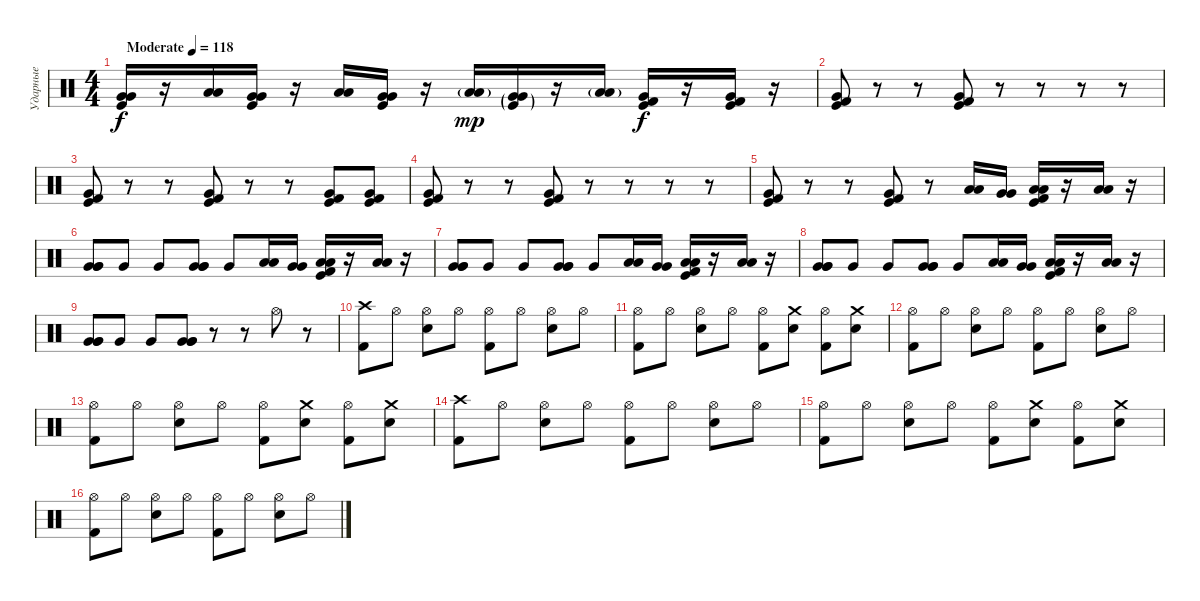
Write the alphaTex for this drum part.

\track ("Ударные" "Ударные") {instrument percussion}
\staff {score}
\articulation defaults
\ts (4 4)
\tempo (118 "Moderate")
\clef neutral
\ks c
("Very Low Tom (hit)" "Very Low Tom (hit)" "Kick (hit)").16{dy f} r.16 ("Low Tom (hit)" "Low Tom (hit)").16 ("Very Low Tom (hit)" "Very Low Tom (hit)" "Kick (hit)").16 r.16 ("Low Tom (hit)" "Low Tom (hit)").16 ("Very Low Tom (hit)" "Very Low Tom (hit)" "Kick (hit)").16 r.16 ("Low Tom (hit)"{g} "Low Tom (hit)"{g}).16{dy mp} ("Very Low Tom (hit)"{g} "Very Low Tom (hit)"{g} "Kick (hit)"{g}).16 r.16 ("Low Tom (hit)"{g} "Low Tom (hit)"{g}).16 ("Very Low Tom (hit)" "Kick (hit) 2" "Kick (hit)").16{dy f} r.16 ("Very Low Tom (hit)" "Kick (hit) 2" "Kick (hit)").16 r.16 |
("Very Low Tom (hit)" "Kick (hit) 2" "Kick (hit)").8 r.8 r.8 ("Very Low Tom (hit)" "Kick (hit) 2" "Kick (hit)").8 r.8 r.8 r.8 r.8 |
("Very Low Tom (hit)" "Kick (hit) 2" "Kick (hit)").8 r.8 r.8 ("Very Low Tom (hit)" "Kick (hit) 2" "Kick (hit)").8 r.8 r.8 ("Very Low Tom (hit)" "Kick (hit) 2" "Kick (hit)").8 ("Very Low Tom (hit)" "Kick (hit) 2" "Kick (hit)").8 |
("Very Low Tom (hit)" "Kick (hit) 2" "Kick (hit)").8 r.8 r.8 ("Very Low Tom (hit)" "Kick (hit)" "Kick (hit) 2").8 r.8 r.8 r.8 r.8 |
("Very Low Tom (hit)" "Kick (hit) 2" "Kick (hit)").8 r.8 r.8 ("Very Low Tom (hit)" "Kick (hit) 2" "Kick (hit)").8 r.8 ("Low Tom (hit)" "Low Tom (hit)").16 ("Very Low Tom (hit)" "Very Low Tom (hit)").16 ("Low Floor Tom (hit)" "Low Floor Tom (hit)" "Kick (hit) 2" "Kick (hit)").16 r.16 ("Low Floor Tom (hit)" "Low Floor Tom (hit)").16 r.16 |
("Very Low Tom (hit)" "Very Low Tom (hit)" "Very Low Tom (hit)").8 "Very Low Tom (hit)".8 "Very Low Tom (hit)".8 ("Very Low Tom (hit)" "Very Low Tom (hit)" "Very Low Tom (hit)").8 "Very Low Tom (hit)".8 ("Low Tom (hit)" "Low Tom (hit)").16 ("Very Low Tom (hit)" "Very Low Tom (hit)").16 ("Low Floor Tom (hit)" "Low Floor Tom (hit)" "Kick (hit) 2" "Kick (hit)").16 r.16 ("Low Floor Tom (hit)" "Low Floor Tom (hit)").16 r.16 |
("Very Low Tom (hit)" "Very Low Tom (hit)" "Very Low Tom (hit)").8 "Very Low Tom (hit)".8 "Very Low Tom (hit)".8 ("Very Low Tom (hit)" "Very Low Tom (hit)" "Very Low Tom (hit)").8 "Very Low Tom (hit)".8 ("Low Tom (hit)" "Low Tom (hit)").16 ("Very Low Tom (hit)" "Very Low Tom (hit)").16 ("Low Floor Tom (hit)" "Low Floor Tom (hit)" "Kick (hit) 2" "Kick (hit)").16 r.16 ("Low Floor Tom (hit)" "Low Floor Tom (hit)").16 r.16 |
("Very Low Tom (hit)" "Very Low Tom (hit)" "Very Low Tom (hit)").8 "Very Low Tom (hit)".8 "Very Low Tom (hit)".8 ("Very Low Tom (hit)" "Very Low Tom (hit)" "Very Low Tom (hit)").8 "Very Low Tom (hit)".8 ("Low Tom (hit)" "Low Tom (hit)").16 ("Very Low Tom (hit)" "Very Low Tom (hit)").16 ("Low Floor Tom (hit)" "Low Floor Tom (hit)" "Kick (hit) 2" "Kick (hit)").16 r.16 ("Low Floor Tom (hit)" "Low Floor Tom (hit)").16 r.16 |
("Very Low Tom (hit)" "Very Low Tom (hit)" "Very Low Tom (hit)").8 "Very Low Tom (hit)".8 "Very Low Tom (hit)".8 ("Very Low Tom (hit)" "Very Low Tom (hit)" "Very Low Tom (hit)").8 r.8 r.8 "Hi-Hat (open)".8 r.8 |
("Crash high (hit)" "Kick (hit) 2").8 "Hi-Hat (open)".8 ("Hi-Hat (open)" "Snare (hit) 2").8 "Hi-Hat (open)".8 ("Hi-Hat (open)" "Kick (hit) 2").8 "Hi-Hat (open)".8 ("Hi-Hat (open)" "Snare (hit) 2").8 "Hi-Hat (open)".8 |
("Hi-Hat (open)" "Kick (hit) 2").8 "Hi-Hat (open)".8 ("Hi-Hat (open)" "Snare (hit) 2").8 "Hi-Hat (open)".8 ("Hi-Hat (open)" "Kick (hit) 2").8 ("Crash medium (hit)" "Snare (hit) 2").8 ("Hi-Hat (open)" "Kick (hit) 2").8 ("Crash medium (hit)" "Snare (hit) 2").8 |
("Hi-Hat (open)" "Kick (hit) 2").8 "Hi-Hat (open)".8 ("Hi-Hat (open)" "Snare (hit) 2").8 "Hi-Hat (open)".8 ("Hi-Hat (open)" "Kick (hit) 2").8 "Hi-Hat (open)".8 ("Hi-Hat (open)" "Snare (hit) 2").8 "Hi-Hat (open)".8 |
("Hi-Hat (open)" "Kick (hit) 2").8 "Hi-Hat (open)".8 ("Hi-Hat (open)" "Snare (hit) 2").8 "Hi-Hat (open)".8 ("Hi-Hat (open)" "Kick (hit) 2").8 ("Crash medium (hit)" "Snare (hit) 2").8 ("Hi-Hat (open)" "Kick (hit) 2").8 ("Crash medium (hit)" "Snare (hit) 2").8 |
("Crash high (hit)" "Kick (hit) 2").8 "Hi-Hat (open)".8 ("Hi-Hat (open)" "Snare (hit) 2").8 "Hi-Hat (open)".8 ("Hi-Hat (open)" "Kick (hit) 2").8 "Hi-Hat (open)".8 ("Hi-Hat (open)" "Snare (hit) 2").8 "Hi-Hat (open)".8 |
("Hi-Hat (open)" "Kick (hit) 2").8 "Hi-Hat (open)".8 ("Hi-Hat (open)" "Snare (hit) 2").8 "Hi-Hat (open)".8 ("Hi-Hat (open)" "Kick (hit) 2").8 ("Crash medium (hit)" "Snare (hit) 2").8 ("Hi-Hat (open)" "Kick (hit) 2").8 ("Crash medium (hit)" "Snare (hit) 2").8 |
("Hi-Hat (open)" "Kick (hit) 2").8 "Hi-Hat (open)".8 ("Hi-Hat (open)" "Snare (hit) 2").8 "Hi-Hat (open)".8 ("Hi-Hat (open)" "Kick (hit) 2").8 "Hi-Hat (open)".8 ("Hi-Hat (open)" "Snare (hit) 2").8 "Hi-Hat (open)".8
